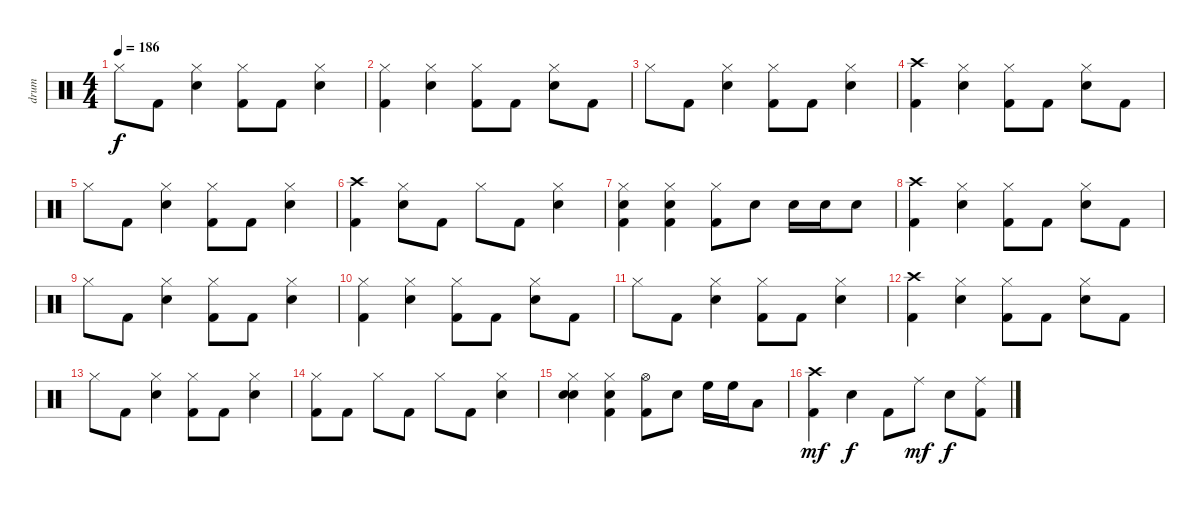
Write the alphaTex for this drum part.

\track ("drum" "drum") {instrument percussion}
\staff {score}
\articulation defaults
\ts (4 4)
\tempo 186
\clef neutral
\ks c "Hi-Hat (closed)".8{dy f} "Kick (hit) 2".8
("Hi-Hat (closed)" "Snare (hit) 2").4 ("Hi-Hat (closed)" "Kick (hit) 2").8 "Kick (hit) 2".8 ("Hi-Hat (closed)" "Snare (hit) 2").4 |
("Hi-Hat (closed)" "Kick (hit) 2").4 ("Hi-Hat (closed)" "Snare (hit) 2").4 ("Hi-Hat (closed)" "Kick (hit) 2").8 "Kick (hit) 2".8 ("Hi-Hat (closed)" "Snare (hit) 2").8 "Kick (hit) 2".8 |
"Hi-Hat (closed)".8 "Kick (hit) 2".8 ("Hi-Hat (closed)" "Snare (hit) 2").4 ("Hi-Hat (closed)" "Kick (hit) 2").8 "Kick (hit) 2".8 ("Hi-Hat (closed)" "Snare (hit) 2").4 |
("Crash high (hit)" "Kick (hit) 2").4 ("Hi-Hat (closed)" "Snare (hit) 2").4 ("Hi-Hat (closed)" "Kick (hit) 2").8 "Kick (hit) 2".8 ("Hi-Hat (closed)" "Snare (hit) 2").8 "Kick (hit) 2".8 |
"Hi-Hat (closed)".8 "Kick (hit) 2".8 ("Hi-Hat (closed)" "Snare (hit) 2").4 ("Hi-Hat (closed)" "Kick (hit) 2").8 "Kick (hit) 2".8 ("Hi-Hat (closed)" "Snare (hit) 2").4 |
("Crash high (hit)" "Kick (hit) 2").4 ("Hi-Hat (closed)" "Snare (hit) 2").8 "Kick (hit) 2".8 "Hi-Hat (closed)".8 "Kick (hit) 2".8 ("Hi-Hat (closed)" "Snare (hit) 2").4 |
("Hi-Hat (closed)" "Snare (hit) 2" "Kick (hit) 2").4 ("Hi-Hat (closed)" "Snare (hit) 2" "Kick (hit) 2").4 ("Hi-Hat (closed)" "Kick (hit) 2").8 "Snare (hit) 2".8 "Snare (hit) 2".16 "Snare (hit) 2".16 "Snare (hit) 2".8 |
("Crash high (hit)" "Kick (hit) 2").4 ("Hi-Hat (closed)" "Snare (hit) 2").4 ("Hi-Hat (closed)" "Kick (hit) 2").8 "Kick (hit) 2".8 ("Hi-Hat (closed)" "Snare (hit) 2").8 "Kick (hit) 2".8 |
"Hi-Hat (closed)".8 "Kick (hit) 2".8 ("Hi-Hat (closed)" "Snare (hit) 2").4 ("Hi-Hat (closed)" "Kick (hit) 2").8 "Kick (hit) 2".8 ("Hi-Hat (closed)" "Snare (hit) 2").4 |
("Hi-Hat (closed)" "Kick (hit) 2").4 ("Hi-Hat (closed)" "Snare (hit) 2").4 ("Hi-Hat (closed)" "Kick (hit) 2").8 "Kick (hit) 2".8 ("Hi-Hat (closed)" "Snare (hit) 2").8 "Kick (hit) 2".8 |
"Hi-Hat (closed)".8 "Kick (hit) 2".8 ("Hi-Hat (closed)" "Snare (hit) 2").4 ("Hi-Hat (closed)" "Kick (hit) 2").8 "Kick (hit) 2".8 ("Hi-Hat (closed)" "Snare (hit) 2").4 |
("Crash high (hit)" "Kick (hit) 2").4 ("Hi-Hat (closed)" "Snare (hit) 2").4 ("Hi-Hat (closed)" "Kick (hit) 2").8 "Kick (hit) 2".8 ("Hi-Hat (closed)" "Snare (hit) 2").8 "Kick (hit) 2".8 |
"Hi-Hat (closed)".8 "Kick (hit) 2".8 ("Hi-Hat (closed)" "Snare (hit) 2").4 ("Hi-Hat (closed)" "Kick (hit) 2").8 "Kick (hit) 2".8 ("Hi-Hat (closed)" "Snare (hit) 2").4 |
("Hi-Hat (closed)" "Kick (hit) 2").8 "Kick (hit) 2".8 "Hi-Hat (closed)".8 "Kick (hit) 2".8 "Hi-Hat (closed)".8 "Kick (hit) 2".8 ("Hi-Hat (closed)" "Snare (hit) 2").4 |
("Hi-Hat (closed)" "Snare (hit) 2" "Snare (hit) 2").4 ("Hi-Hat (closed)" "Snare (hit) 2" "Kick (hit) 2").4 ("Hi-Hat (open)" "Kick (hit) 2").8 "Snare (hit) 2".8 "High Floor Tom (hit)".16 "High Floor Tom (hit)".16 "Low Floor Tom (hit)".8 |
("Crash high (hit)" "Kick (hit) 2").4{dy mf} "Snare (hit) 2".4{dy f} "Kick (hit) 2".8 "Ride (middle)".8{dy mf} "Snare (hit) 2".8{dy f} ("Ride (middle)" "Kick (hit) 2").8
